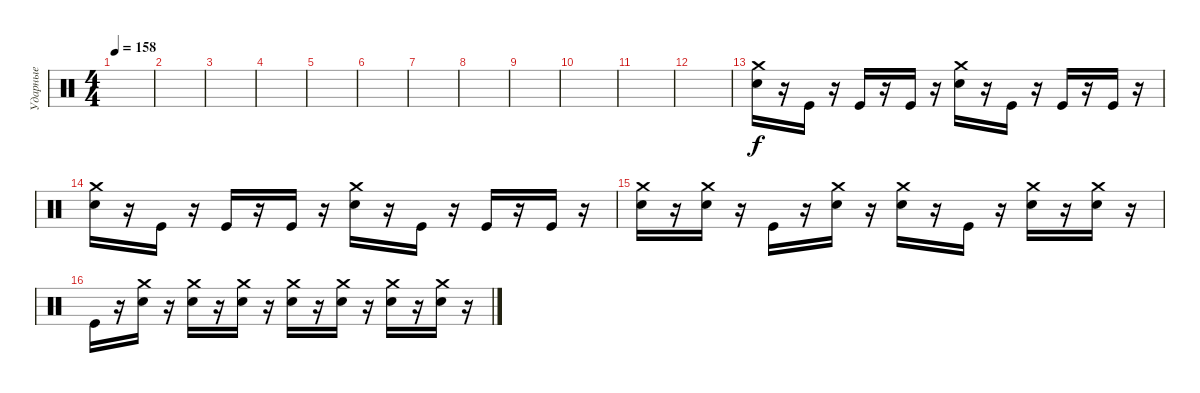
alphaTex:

\track ("Ударные" "Ударные") {instrument percussion}
\staff {score}
\articulation defaults
\ts (4 4)
\tempo 158
\clef neutral
\ks c
|
|
|
|
|
|
|
|
|
|
|
|
("Crash medium (hit)" "Electric Snare (hit)").16 r.16 "Kick (hit)".16 r.16 "Kick (hit)".16 r.16 "Kick (hit)".16 r.16 ("Crash medium (hit)" "Electric Snare (hit)").16 r.16 "Kick (hit)".16 r.16 "Kick (hit)".16 r.16 "Kick (hit)".16 r.16 |
("Crash medium (hit)" "Electric Snare (hit)").16 r.16 "Kick (hit)".16 r.16 "Kick (hit)".16 r.16 "Kick (hit)".16 r.16 ("Crash medium (hit)" "Electric Snare (hit)").16 r.16 "Kick (hit)".16 r.16 "Kick (hit)".16 r.16 "Kick (hit)".16 r.16 |
("Crash medium (hit)" "Electric Snare (hit)").16 r.16 ("Crash medium (hit)" "Electric Snare (hit)").16 r.16 "Kick (hit)".16 r.16 ("Crash medium (hit)" "Electric Snare (hit)").16 r.16 ("Crash medium (hit)" "Electric Snare (hit)").16 r.16 "Kick (hit)".16 r.16 ("Crash medium (hit)" "Electric Snare (hit)").16 r.16 ("Crash medium (hit)" "Electric Snare (hit)").16 r.16 |
"Kick (hit)".16 r.16 ("Crash medium (hit)" "Electric Snare (hit)").16 r.16 ("Crash medium (hit)" "Electric Snare (hit)").16 r.16 ("Crash medium (hit)" "Electric Snare (hit)").16 r.16 ("Crash medium (hit)" "Electric Snare (hit)").16 r.16 ("Crash medium (hit)" "Electric Snare (hit)").16 r.16 ("Crash medium (hit)" "Electric Snare (hit)").16 r.16 ("Crash medium (hit)" "Electric Snare (hit)").16 r.16
